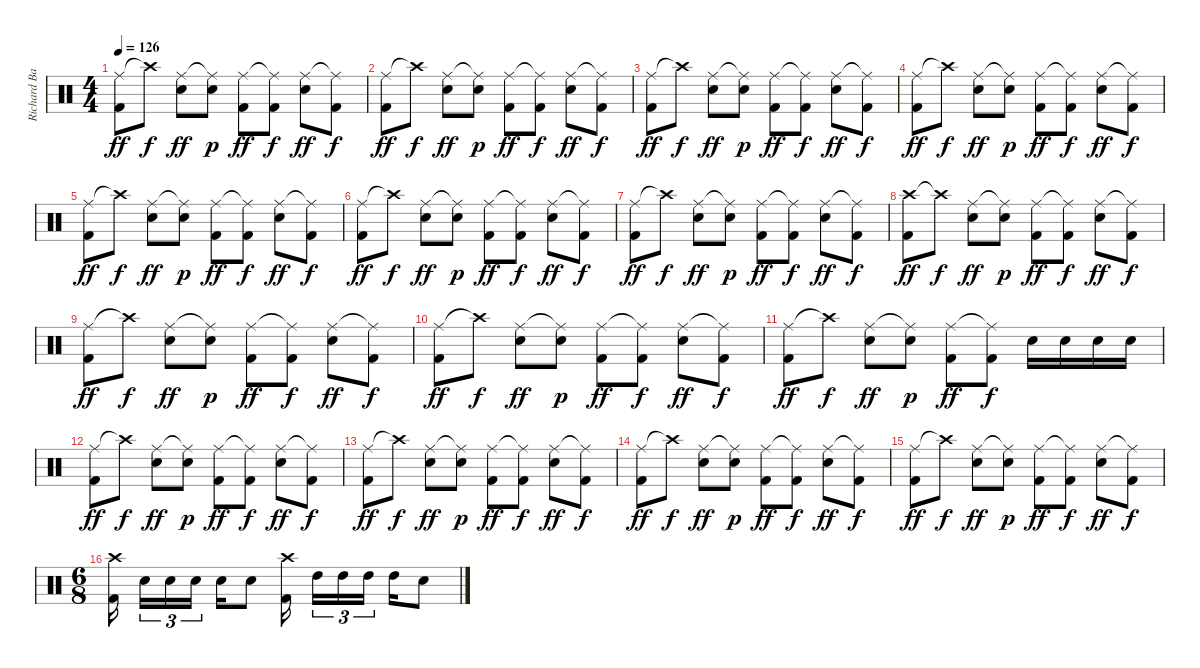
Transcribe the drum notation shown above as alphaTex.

\track ("Richard Bailey" "Richard Ba") {instrument percussion}
\staff {score}
\articulation defaults
\ts (4 4)
\tempo 126
\clef neutral
\ks c
("Ride (middle)" "Kick (hit) 2").8{dy ff} "Crash high (hit)"{t}.8{dy f} ("Ride (middle)" "Snare (hit) 2").8{dy ff} ("Ride (middle)"{t} "Snare (hit) 2").8{dy p} ("Ride (middle)" "Kick (hit) 2").8{dy ff} ("Ride (middle)"{t} "Kick (hit) 2").8{dy f} ("Ride (middle)" "Snare (hit) 2").8{dy ff} ("Ride (middle)"{t} "Kick (hit) 2").8{dy f} |
("Ride (middle)" "Kick (hit) 2").8{dy ff} "Crash high (hit)"{t}.8{dy f} ("Ride (middle)" "Snare (hit) 2").8{dy ff} ("Ride (middle)"{t} "Snare (hit) 2").8{dy p} ("Ride (middle)" "Kick (hit) 2").8{dy ff} ("Ride (middle)"{t} "Kick (hit) 2").8{dy f} ("Ride (middle)" "Snare (hit) 2").8{dy ff} ("Ride (middle)"{t} "Kick (hit) 2").8{dy f} |
("Ride (middle)" "Kick (hit) 2").8{dy ff} "Crash high (hit)"{t}.8{dy f} ("Ride (middle)" "Snare (hit) 2").8{dy ff} ("Ride (middle)"{t} "Snare (hit) 2").8{dy p} ("Ride (middle)" "Kick (hit) 2").8{dy ff} ("Ride (middle)"{t} "Kick (hit) 2").8{dy f} ("Ride (middle)" "Snare (hit) 2").8{dy ff} ("Ride (middle)"{t} "Kick (hit) 2").8{dy f} |
("Ride (middle)" "Kick (hit) 2").8{dy ff} "Crash high (hit)"{t}.8{dy f} ("Ride (middle)" "Snare (hit) 2").8{dy ff} ("Ride (middle)"{t} "Snare (hit) 2").8{dy p} ("Ride (middle)" "Kick (hit) 2").8{dy ff} ("Ride (middle)"{t} "Kick (hit) 2").8{dy f} ("Ride (middle)" "Snare (hit) 2").8{dy ff} ("Ride (middle)"{t} "Kick (hit) 2").8{dy f} |
("Ride (middle)" "Kick (hit) 2").8{dy ff} "Crash high (hit)"{t}.8{dy f} ("Ride (middle)" "Snare (hit) 2").8{dy ff} ("Ride (middle)"{t} "Snare (hit) 2").8{dy p} ("Ride (middle)" "Kick (hit) 2").8{dy ff} ("Ride (middle)"{t} "Kick (hit) 2").8{dy f} ("Ride (middle)" "Snare (hit) 2").8{dy ff} ("Ride (middle)"{t} "Kick (hit) 2").8{dy f} |
("Ride (middle)" "Kick (hit) 2").8{dy ff} "Crash high (hit)"{t}.8{dy f} ("Ride (middle)" "Snare (hit) 2").8{dy ff} ("Ride (middle)"{t} "Snare (hit) 2").8{dy p} ("Ride (middle)" "Kick (hit) 2").8{dy ff} ("Ride (middle)"{t} "Kick (hit) 2").8{dy f} ("Ride (middle)" "Snare (hit) 2").8{dy ff} ("Ride (middle)"{t} "Kick (hit) 2").8{dy f} |
("Ride (middle)" "Kick (hit) 2").8{dy ff} "Crash high (hit)"{t}.8{dy f} ("Ride (middle)" "Snare (hit) 2").8{dy ff} ("Ride (middle)"{t} "Snare (hit) 2").8{dy p} ("Ride (middle)" "Kick (hit) 2").8{dy ff} ("Ride (middle)"{t} "Kick (hit) 2").8{dy f} ("Ride (middle)" "Snare (hit) 2").8{dy ff} ("Ride (middle)"{t} "Kick (hit) 2").8{dy f} |
("Crash high (hit)" "Kick (hit) 2").8{dy ff} "Crash high (hit)"{t}.8{dy f} ("Ride (middle)" "Snare (hit) 2").8{dy ff} ("Ride (middle)"{t} "Snare (hit) 2").8{dy p} ("Ride (middle)" "Kick (hit) 2").8{dy ff} ("Ride (middle)"{t} "Kick (hit) 2").8{dy f} ("Ride (middle)" "Snare (hit) 2").8{dy ff} ("Ride (middle)"{t} "Kick (hit) 2").8{dy f} |
("Ride (middle)" "Kick (hit) 2").8{dy ff} "Crash high (hit)"{t}.8{dy f} ("Ride (middle)" "Snare (hit) 2").8{dy ff} ("Ride (middle)"{t} "Snare (hit) 2").8{dy p} ("Ride (middle)" "Kick (hit) 2").8{dy ff} ("Ride (middle)"{t} "Kick (hit) 2").8{dy f} ("Ride (middle)" "Snare (hit) 2").8{dy ff} ("Ride (middle)"{t} "Kick (hit) 2").8{dy f} |
("Ride (middle)" "Kick (hit) 2").8{dy ff} "Crash high (hit)"{t}.8{dy f} ("Ride (middle)" "Snare (hit) 2").8{dy ff} ("Ride (middle)"{t} "Snare (hit) 2").8{dy p} ("Ride (middle)" "Kick (hit) 2").8{dy ff} ("Ride (middle)"{t} "Kick (hit) 2").8{dy f} ("Ride (middle)" "Snare (hit) 2").8{dy ff} ("Ride (middle)"{t} "Kick (hit) 2").8{dy f} |
("Ride (middle)" "Kick (hit) 2").8{dy ff} "Crash high (hit)"{t}.8{dy f} ("Ride (middle)" "Snare (hit) 2").8{dy ff} ("Ride (middle)"{t} "Snare (hit) 2").8{dy p} ("Ride (middle)" "Kick (hit) 2").8{dy ff} ("Ride (middle)"{t} "Kick (hit) 2").8{dy f} "Electric Snare (hit)".16 "Electric Snare (hit)".16 "Electric Snare (hit)".16 "Electric Snare (hit)".16 |
("Ride (middle)" "Kick (hit) 2").8{dy ff} "Crash high (hit)"{t}.8{dy f} ("Ride (middle)" "Snare (hit) 2").8{dy ff} ("Ride (middle)"{t} "Snare (hit) 2").8{dy p} ("Ride (middle)" "Kick (hit) 2").8{dy ff} ("Ride (middle)"{t} "Kick (hit) 2").8{dy f} ("Ride (middle)" "Snare (hit) 2").8{dy ff} ("Ride (middle)"{t} "Kick (hit) 2").8{dy f} |
("Ride (middle)" "Kick (hit) 2").8{dy ff} "Crash high (hit)"{t}.8{dy f} ("Ride (middle)" "Snare (hit) 2").8{dy ff} ("Ride (middle)"{t} "Snare (hit) 2").8{dy p} ("Ride (middle)" "Kick (hit) 2").8{dy ff} ("Ride (middle)"{t} "Kick (hit) 2").8{dy f} ("Ride (middle)" "Snare (hit) 2").8{dy ff} ("Ride (middle)"{t} "Kick (hit) 2").8{dy f} |
("Ride (middle)" "Kick (hit) 2").8{dy ff} "Crash high (hit)"{t}.8{dy f} ("Ride (middle)" "Snare (hit) 2").8{dy ff} ("Ride (middle)"{t} "Snare (hit) 2").8{dy p} ("Ride (middle)" "Kick (hit) 2").8{dy ff} ("Ride (middle)"{t} "Kick (hit) 2").8{dy f} ("Ride (middle)" "Snare (hit) 2").8{dy ff} ("Ride (middle)"{t} "Kick (hit) 2").8{dy f} |
("Ride (middle)" "Kick (hit) 2").8{dy ff} "Crash high (hit)"{t}.8{dy f} ("Ride (middle)" "Snare (hit) 2").8{dy ff} ("Ride (middle)"{t} "Snare (hit) 2").8{dy p} ("Ride (middle)" "Kick (hit) 2").8{dy ff} ("Ride (middle)"{t} "Kick (hit) 2").8{dy f} ("Ride (middle)" "Snare (hit) 2").8{dy ff} ("Ride (middle)"{t} "Kick (hit) 2").8{dy f} |
\ts (6 8)
("Crash high (hit)" "Kick (hit) 2").16 "Snare (hit) 2".16{tu (3 2)} "Snare (hit) 2".16{tu (3 2)} "Snare (hit) 2".16{tu (3 2)} "Snare (hit) 2".16 "Electric Snare (hit)".8 ("Crash high (hit)" "Kick (hit) 2").16 "High Tom (hit)".16{tu (3 2)} "High Tom (hit)".16{tu (3 2)} "High Tom (hit)".16{tu (3 2)} "High Tom (hit)".16 "Electric Snare (hit)".8
